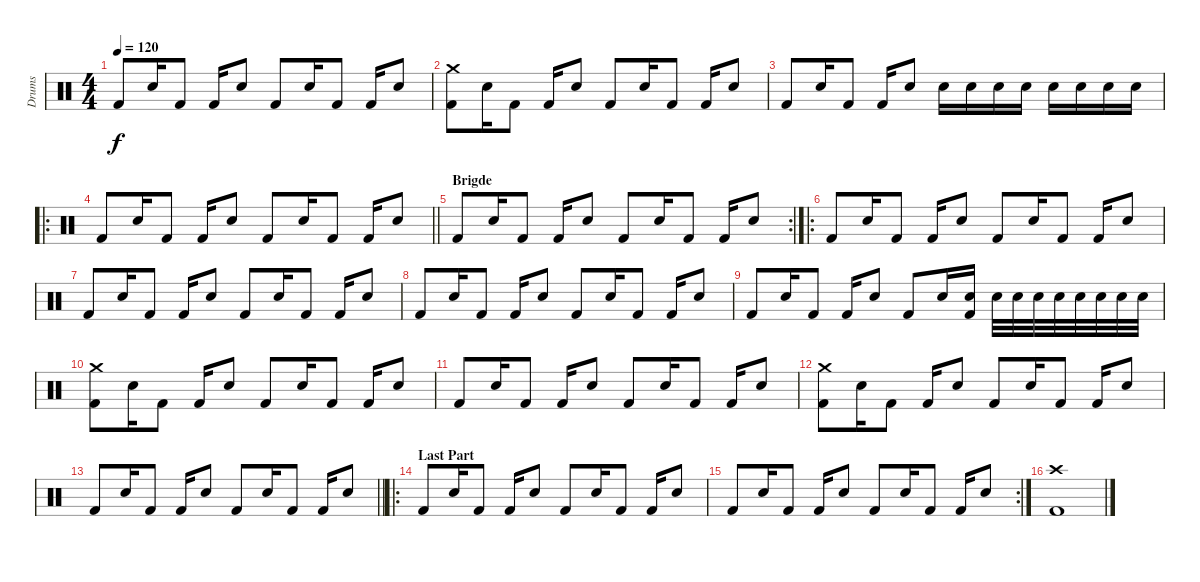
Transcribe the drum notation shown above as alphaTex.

\track ("Drums" "Drums") {instrument percussion}
\staff {score}
\articulation defaults
\ts (4 4)
\tempo 120
\clef neutral
\ks c "Kick (hit) 2".8{dy f} "Snare (hit) 2".16 "Kick (hit) 2".8 "Kick (hit) 2".16 "Snare (hit) 2".8 "Kick (hit) 2".8 "Snare (hit) 2".16 "Kick (hit) 2".8 "Kick (hit) 2".16 "Snare (hit) 2".8
|
("Crash medium (hit)" "Kick (hit) 2").8 "Snare (hit) 2".16 "Kick (hit) 2".8 "Kick (hit) 2".16 "Snare (hit) 2".8 "Kick (hit) 2".8 "Snare (hit) 2".16 "Kick (hit) 2".8 "Kick (hit) 2".16 "Snare (hit) 2".8 |
"Kick (hit) 2".8 "Snare (hit) 2".16 "Kick (hit) 2".8 "Kick (hit) 2".16 "Snare (hit) 2".8 "Electric Snare (hit)".16 "Electric Snare (hit)".16 "Electric Snare (hit)".16 "Electric Snare (hit)".16 "Electric Snare (hit)".16 "Electric Snare (hit)".16 "Electric Snare (hit)".16 "Electric Snare (hit)".16 |
\ro
\barLineRight lightlight "Kick (hit) 2".8 "Snare (hit) 2".16 "Kick (hit) 2".8 "Kick (hit) 2".16 "Snare (hit) 2".8 "Kick (hit) 2".8 "Snare (hit) 2".16 "Kick (hit) 2".8 "Kick (hit) 2".16 "Snare (hit) 2".8
|
\rc 2
\section ("" "Brigde")
"Kick (hit) 2".8 "Snare (hit) 2".16 "Kick (hit) 2".8 "Kick (hit) 2".16 "Snare (hit) 2".8 "Kick (hit) 2".8 "Snare (hit) 2".16 "Kick (hit) 2".8 "Kick (hit) 2".16 "Snare (hit) 2".8 |
\ro "Kick (hit) 2".8 "Snare (hit) 2".16 "Kick (hit) 2".8 "Kick (hit) 2".16 "Snare (hit) 2".8 "Kick (hit) 2".8 "Snare (hit) 2".16 "Kick (hit) 2".8 "Kick (hit) 2".16 "Snare (hit) 2".8
|
"Kick (hit) 2".8 "Snare (hit) 2".16 "Kick (hit) 2".8 "Kick (hit) 2".16 "Snare (hit) 2".8 "Kick (hit) 2".8 "Snare (hit) 2".16 "Kick (hit) 2".8 "Kick (hit) 2".16 "Snare (hit) 2".8 |
"Kick (hit) 2".8 "Snare (hit) 2".16 "Kick (hit) 2".8 "Kick (hit) 2".16 "Snare (hit) 2".8 "Kick (hit) 2".8 "Snare (hit) 2".16 "Kick (hit) 2".8 "Kick (hit) 2".16 "Snare (hit) 2".8 |
"Kick (hit) 2".8 "Snare (hit) 2".16 "Kick (hit) 2".8 "Kick (hit) 2".16 "Snare (hit) 2".8 "Kick (hit) 2".8 "Snare (hit) 2".16 ("Snare (hit)" "Kick (hit) 2").16 "Snare (hit) 2".32 "Snare (hit) 2".32 "Snare (hit) 2".32 "Snare (hit) 2".32 "Snare (hit) 2".32 "Snare (hit) 2".32 "Snare (hit) 2".32 "Snare (hit) 2".32 |
("Crash medium (hit)" "Kick (hit) 2").8 "Snare (hit) 2".16 "Kick (hit) 2".8 "Kick (hit) 2".16 "Snare (hit) 2".8 "Kick (hit) 2".8 "Snare (hit) 2".16 "Kick (hit) 2".8 "Kick (hit) 2".16 "Snare (hit) 2".8 |
"Kick (hit) 2".8 "Snare (hit) 2".16 "Kick (hit) 2".8 "Kick (hit) 2".16 "Snare (hit) 2".8 "Kick (hit) 2".8 "Snare (hit) 2".16 "Kick (hit) 2".8 "Kick (hit) 2".16 "Snare (hit) 2".8 |
("Crash medium (hit)" "Kick (hit) 2").8 "Snare (hit) 2".16 "Kick (hit) 2".8 "Kick (hit) 2".16 "Snare (hit) 2".8 "Kick (hit) 2".8 "Snare (hit) 2".16 "Kick (hit) 2".8 "Kick (hit) 2".16 "Snare (hit) 2".8 |
\barLineRight lightlight "Kick (hit) 2".8 "Snare (hit) 2".16 "Kick (hit) 2".8 "Kick (hit) 2".16 "Snare (hit) 2".8 "Kick (hit) 2".8 "Snare (hit) 2".16 "Kick (hit) 2".8 "Kick (hit) 2".16 "Snare (hit) 2".8
|
\ro
\section ("" "Last Part")
"Kick (hit) 2".8 "Snare (hit) 2".16 "Kick (hit) 2".8 "Kick (hit) 2".16 "Snare (hit) 2".8 "Kick (hit) 2".8 "Snare (hit) 2".16 "Kick (hit) 2".8 "Kick (hit) 2".16 "Snare (hit) 2".8 |
\rc 2 "Kick (hit) 2".8 "Snare (hit) 2".16 "Kick (hit) 2".8 "Kick (hit) 2".16 "Snare (hit) 2".8 "Kick (hit) 2".8 "Snare (hit) 2".16 "Kick (hit) 2".8 "Kick (hit) 2".16 "Snare (hit) 2".8
|
("Crash high (hit)" "Kick (hit) 2").1
